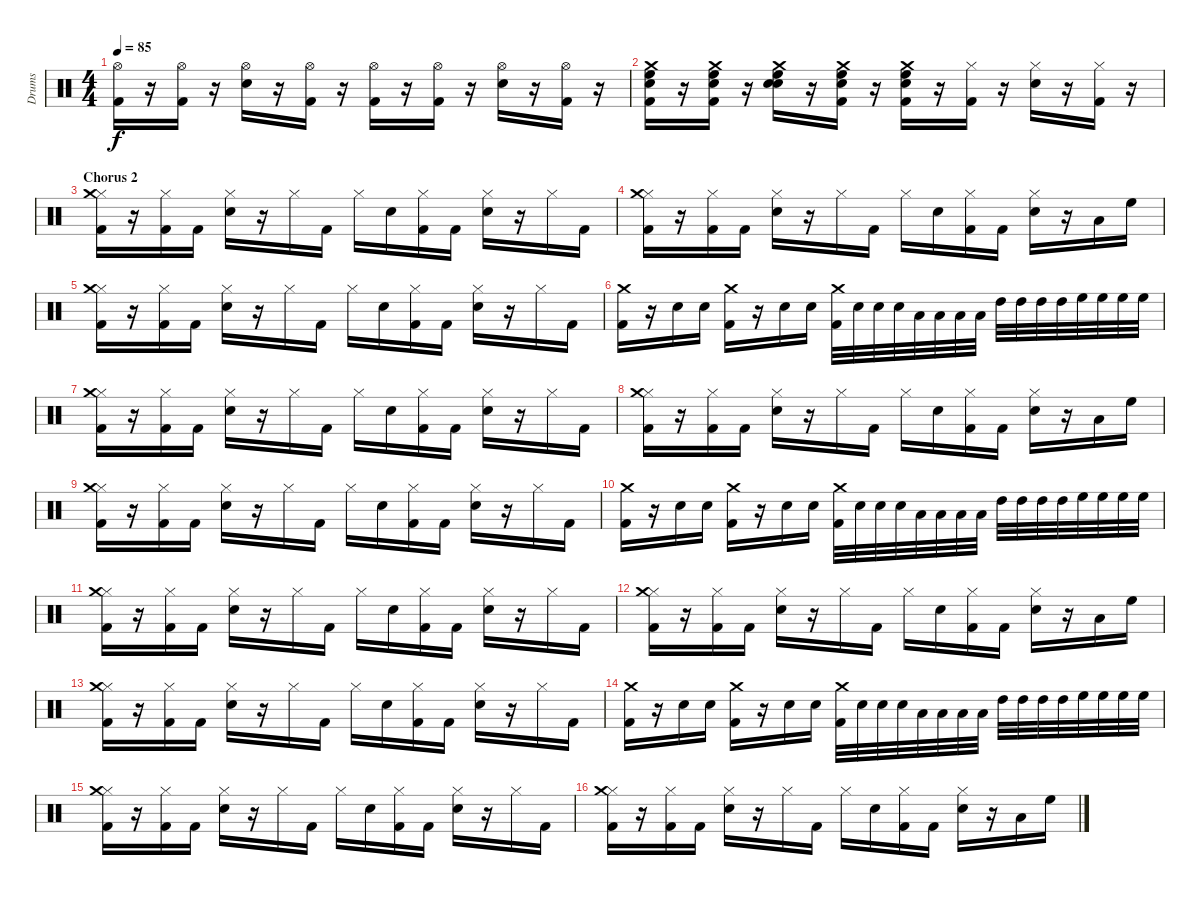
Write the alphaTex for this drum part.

\track ("Drums" "Drums") {instrument percussion}
\staff {score}
\articulation defaults
\ts (4 4)
\tempo 85
\clef neutral
\ks c
("Hi-Hat (open)" "Kick (hit) 2").16{dy f} r.16 ("Hi-Hat (open)" "Kick (hit) 2").16 r.16 ("Hi-Hat (open)" "Snare (hit) 2").16 r.16 ("Hi-Hat (open)" "Kick (hit) 2").16 r.16 ("Hi-Hat (open)" "Kick (hit) 2").16 r.16 ("Hi-Hat (open)" "Kick (hit) 2").16 r.16 ("Hi-Hat (open)" "Snare (hit) 2").16 r.16 ("Hi-Hat (open)" "Kick (hit) 2").16 r.16 |
("Crash medium (hit)" "Snare (hit) 2" "Kick (hit) 2" "High Floor Tom (hit)").16 r.16 ("Crash medium (hit)" "Snare (hit) 2" "Kick (hit) 2" "High Floor Tom (hit)").16 r.16 ("Crash medium (hit)" "Snare (hit) 2" "Snare (hit) 2" "High Floor Tom (hit)").16 r.16 ("Crash medium (hit)" "Snare (hit) 2" "Kick (hit) 2" "High Floor Tom (hit)").16 r.16 ("Crash medium (hit)" "Snare (hit) 2" "Kick (hit) 2" "High Floor Tom (hit)").16 r.16 ("Hi-Hat (closed)" "Kick (hit) 2").16 r.16 ("Hi-Hat (closed)" "Snare (hit) 2").16 r.16 ("Hi-Hat (closed)" "Kick (hit) 2").16 r.16 |
\section ("" "Chorus 2")
("Hi-Hat (closed)" "Kick (hit) 2" "Crash medium (hit)").16 r.16 ("Hi-Hat (closed)" "Kick (hit) 2").16 "Kick (hit) 2".16 ("Hi-Hat (closed)" "Snare (hit) 2").16 r.16 "Hi-Hat (closed)".16 "Kick (hit) 2".16 "Hi-Hat (closed)".16 "Snare (hit) 2".16 ("Hi-Hat (closed)" "Kick (hit) 2").16 "Kick (hit) 2".16 ("Hi-Hat (closed)" "Snare (hit) 2").16 r.16 "Hi-Hat (closed)".16 "Kick (hit) 2".16 |
("Hi-Hat (closed)" "Kick (hit) 2" "Crash medium (hit)").16 r.16 ("Hi-Hat (closed)" "Kick (hit) 2").16 "Kick (hit) 2".16 ("Hi-Hat (closed)" "Snare (hit) 2").16 r.16 "Hi-Hat (closed)".16 "Kick (hit) 2".16 "Hi-Hat (closed)".16 "Snare (hit) 2".16 ("Hi-Hat (closed)" "Kick (hit) 2").16 "Kick (hit) 2".16 ("Hi-Hat (closed)" "Snare (hit) 2").16 r.16 "Low Tom (hit)".16 "High Floor Tom (hit)".16 |
("Hi-Hat (closed)" "Kick (hit) 2" "Crash medium (hit)").16 r.16 ("Hi-Hat (closed)" "Kick (hit) 2").16 "Kick (hit) 2".16 ("Hi-Hat (closed)" "Snare (hit) 2").16 r.16 "Hi-Hat (closed)".16 "Kick (hit) 2".16 "Hi-Hat (closed)".16 "Snare (hit) 2".16 ("Hi-Hat (closed)" "Kick (hit) 2").16 "Kick (hit) 2".16 ("Hi-Hat (closed)" "Snare (hit) 2").16 r.16 "Hi-Hat (closed)".16 "Kick (hit) 2".16 |
("Kick (hit) 2" "Crash medium (hit)").16 r.16 "Snare (hit) 2".16 "Snare (hit) 2".16 ("Kick (hit) 2" "Crash medium (hit)").16 r.16 "Snare (hit) 2".16 "Snare (hit) 2".16 ("Kick (hit) 2" "Crash medium (hit)").32 "Snare (hit) 2".32 "Snare (hit) 2".32 "Snare (hit) 2".32 "Low Tom (hit)".32 "Low Tom (hit)".32 "Low Tom (hit)".32 "Low Tom (hit)".32 "High Tom (hit)".32 "High Tom (hit)".32 "High Tom (hit)".32 "High Tom (hit)".32 "High Floor Tom (hit)".32 "High Floor Tom (hit)".32 "High Floor Tom (hit)".32 "High Floor Tom (hit)".32 |
("Hi-Hat (closed)" "Kick (hit) 2" "Crash medium (hit)").16 r.16 ("Hi-Hat (closed)" "Kick (hit) 2").16 "Kick (hit) 2".16 ("Hi-Hat (closed)" "Snare (hit) 2").16 r.16 "Hi-Hat (closed)".16 "Kick (hit) 2".16 "Hi-Hat (closed)".16 "Snare (hit) 2".16 ("Hi-Hat (closed)" "Kick (hit) 2").16 "Kick (hit) 2".16 ("Hi-Hat (closed)" "Snare (hit) 2").16 r.16 "Hi-Hat (closed)".16 "Kick (hit) 2".16 |
("Hi-Hat (closed)" "Kick (hit) 2" "Crash medium (hit)").16 r.16 ("Hi-Hat (closed)" "Kick (hit) 2").16 "Kick (hit) 2".16 ("Hi-Hat (closed)" "Snare (hit) 2").16 r.16 "Hi-Hat (closed)".16 "Kick (hit) 2".16 "Hi-Hat (closed)".16 "Snare (hit) 2".16 ("Hi-Hat (closed)" "Kick (hit) 2").16 "Kick (hit) 2".16 ("Hi-Hat (closed)" "Snare (hit) 2").16 r.16 "Low Tom (hit)".16 "High Floor Tom (hit)".16 |
("Hi-Hat (closed)" "Kick (hit) 2" "Crash medium (hit)").16 r.16 ("Hi-Hat (closed)" "Kick (hit) 2").16 "Kick (hit) 2".16 ("Hi-Hat (closed)" "Snare (hit) 2").16 r.16 "Hi-Hat (closed)".16 "Kick (hit) 2".16 "Hi-Hat (closed)".16 "Snare (hit) 2".16 ("Hi-Hat (closed)" "Kick (hit) 2").16 "Kick (hit) 2".16 ("Hi-Hat (closed)" "Snare (hit) 2").16 r.16 "Hi-Hat (closed)".16 "Kick (hit) 2".16 |
("Kick (hit) 2" "Crash medium (hit)").16 r.16 "Snare (hit) 2".16 "Snare (hit) 2".16 ("Kick (hit) 2" "Crash medium (hit)").16 r.16 "Snare (hit) 2".16 "Snare (hit) 2".16 ("Kick (hit) 2" "Crash medium (hit)").32 "Snare (hit) 2".32 "Snare (hit) 2".32 "Snare (hit) 2".32 "Low Tom (hit)".32 "Low Tom (hit)".32 "Low Tom (hit)".32 "Low Tom (hit)".32 "High Tom (hit)".32 "High Tom (hit)".32 "High Tom (hit)".32 "High Tom (hit)".32 "High Floor Tom (hit)".32 "High Floor Tom (hit)".32 "High Floor Tom (hit)".32 "High Floor Tom (hit)".32 |
("Hi-Hat (closed)" "Kick (hit) 2" "Crash medium (hit)").16 r.16 ("Hi-Hat (closed)" "Kick (hit) 2").16 "Kick (hit) 2".16 ("Hi-Hat (closed)" "Snare (hit) 2").16 r.16 "Hi-Hat (closed)".16 "Kick (hit) 2".16 "Hi-Hat (closed)".16 "Snare (hit) 2".16 ("Hi-Hat (closed)" "Kick (hit) 2").16 "Kick (hit) 2".16 ("Hi-Hat (closed)" "Snare (hit) 2").16 r.16 "Hi-Hat (closed)".16 "Kick (hit) 2".16 |
("Hi-Hat (closed)" "Kick (hit) 2" "Crash medium (hit)").16 r.16 ("Hi-Hat (closed)" "Kick (hit) 2").16 "Kick (hit) 2".16 ("Hi-Hat (closed)" "Snare (hit) 2").16 r.16 "Hi-Hat (closed)".16 "Kick (hit) 2".16 "Hi-Hat (closed)".16 "Snare (hit) 2".16 ("Hi-Hat (closed)" "Kick (hit) 2").16 "Kick (hit) 2".16 ("Hi-Hat (closed)" "Snare (hit) 2").16 r.16 "Low Tom (hit)".16 "High Floor Tom (hit)".16 |
("Hi-Hat (closed)" "Kick (hit) 2" "Crash medium (hit)").16 r.16 ("Hi-Hat (closed)" "Kick (hit) 2").16 "Kick (hit) 2".16 ("Hi-Hat (closed)" "Snare (hit) 2").16 r.16 "Hi-Hat (closed)".16 "Kick (hit) 2".16 "Hi-Hat (closed)".16 "Snare (hit) 2".16 ("Hi-Hat (closed)" "Kick (hit) 2").16 "Kick (hit) 2".16 ("Hi-Hat (closed)" "Snare (hit) 2").16 r.16 "Hi-Hat (closed)".16 "Kick (hit) 2".16 |
("Kick (hit) 2" "Crash medium (hit)").16 r.16 "Snare (hit) 2".16 "Snare (hit) 2".16 ("Kick (hit) 2" "Crash medium (hit)").16 r.16 "Snare (hit) 2".16 "Snare (hit) 2".16 ("Kick (hit) 2" "Crash medium (hit)").32 "Snare (hit) 2".32 "Snare (hit) 2".32 "Snare (hit) 2".32 "Low Tom (hit)".32 "Low Tom (hit)".32 "Low Tom (hit)".32 "Low Tom (hit)".32 "High Tom (hit)".32 "High Tom (hit)".32 "High Tom (hit)".32 "High Tom (hit)".32 "High Floor Tom (hit)".32 "High Floor Tom (hit)".32 "High Floor Tom (hit)".32 "High Floor Tom (hit)".32 |
("Hi-Hat (closed)" "Kick (hit) 2" "Crash medium (hit)").16 r.16 ("Hi-Hat (closed)" "Kick (hit) 2").16 "Kick (hit) 2".16 ("Hi-Hat (closed)" "Snare (hit) 2").16 r.16 "Hi-Hat (closed)".16 "Kick (hit) 2".16 "Hi-Hat (closed)".16 "Snare (hit) 2".16 ("Hi-Hat (closed)" "Kick (hit) 2").16 "Kick (hit) 2".16 ("Hi-Hat (closed)" "Snare (hit) 2").16 r.16 "Hi-Hat (closed)".16 "Kick (hit) 2".16 |
("Hi-Hat (closed)" "Kick (hit) 2" "Crash medium (hit)").16 r.16 ("Hi-Hat (closed)" "Kick (hit) 2").16 "Kick (hit) 2".16 ("Hi-Hat (closed)" "Snare (hit) 2").16 r.16 "Hi-Hat (closed)".16 "Kick (hit) 2".16 "Hi-Hat (closed)".16 "Snare (hit) 2".16 ("Hi-Hat (closed)" "Kick (hit) 2").16 "Kick (hit) 2".16 ("Hi-Hat (closed)" "Snare (hit) 2").16 r.16 "Low Tom (hit)".16 "High Floor Tom (hit)".16
